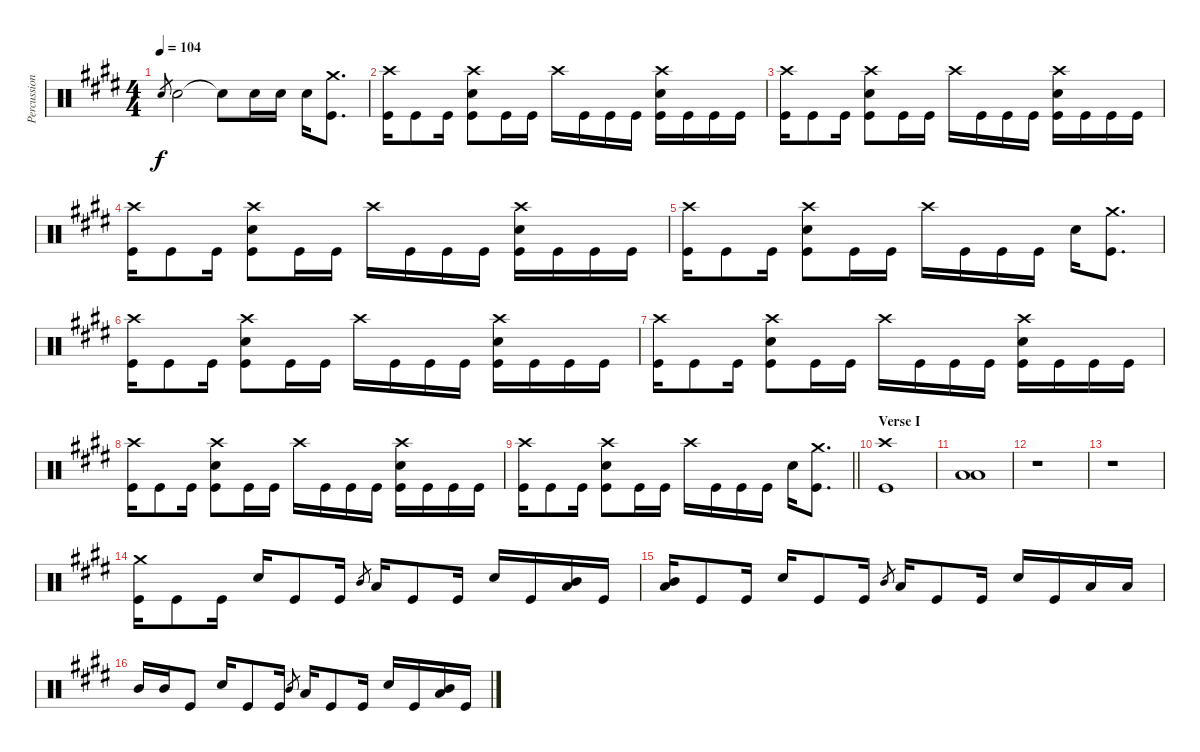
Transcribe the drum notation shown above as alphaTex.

\track ("Percussion" "Percussion") {instrument percussion}
\staff {score}
\articulation defaults
\ts (4 4)
\tempo 104
\clef neutral
\ks e "Electric Snare (hit)".8{gr dy f} "Electric Snare (hit)".2 "Snare (hit)"{t}.8 "Electric Snare (hit)".16 "Electric Snare (hit)".16 "Electric Snare (hit)".16
("Crash medium (hit)" "Kick (hit)").8{d} |
("Crash high (hit)" "Kick (hit)").16 "Kick (hit)".8 "Kick (hit)".16 ("Crash high (hit)" "Electric Snare (hit)" "Kick (hit)").8 "Kick (hit)".16 "Kick (hit)".16 "Crash high (hit)".16 "Kick (hit)".16 "Kick (hit)".16 "Kick (hit)".16 ("Crash high (hit)" "Electric Snare (hit)" "Kick (hit)").16 "Kick (hit)".16 "Kick (hit)".16 "Kick (hit)".16 |
("Crash high (hit)" "Kick (hit)").16 "Kick (hit)".8 "Kick (hit)".16 ("Crash high (hit)" "Electric Snare (hit)" "Kick (hit)").8 "Kick (hit)".16 "Kick (hit)".16 "Crash high (hit)".16 "Kick (hit)".16 "Kick (hit)".16 "Kick (hit)".16 ("Crash high (hit)" "Electric Snare (hit)" "Kick (hit)").16 "Kick (hit)".16 "Kick (hit)".16 "Kick (hit)".16 |
("Crash high (hit)" "Kick (hit)").16 "Kick (hit)".8 "Kick (hit)".16 ("Crash high (hit)" "Electric Snare (hit)" "Kick (hit)").8 "Kick (hit)".16 "Kick (hit)".16 "Crash high (hit)".16 "Kick (hit)".16 "Kick (hit)".16 "Kick (hit)".16 ("Crash high (hit)" "Electric Snare (hit)" "Kick (hit)").16 "Kick (hit)".16 "Kick (hit)".16 "Kick (hit)".16 |
("Crash high (hit)" "Kick (hit)").16 "Kick (hit)".8 "Kick (hit)".16 ("Crash high (hit)" "Electric Snare (hit)" "Kick (hit)").8 "Kick (hit)".16 "Kick (hit)".16 "Crash high (hit)".16 "Kick (hit)".16 "Kick (hit)".16 "Kick (hit)".16 "Electric Snare (hit)".16 ("Crash medium (hit)" "Kick (hit)").8{d} |
("Crash high (hit)" "Kick (hit)").16 "Kick (hit)".8 "Kick (hit)".16 ("Crash high (hit)" "Electric Snare (hit)" "Kick (hit)").8 "Kick (hit)".16 "Kick (hit)".16 "Crash high (hit)".16 "Kick (hit)".16 "Kick (hit)".16 "Kick (hit)".16 ("Crash high (hit)" "Electric Snare (hit)" "Kick (hit)").16 "Kick (hit)".16 "Kick (hit)".16 "Kick (hit)".16 |
("Crash high (hit)" "Kick (hit)").16 "Kick (hit)".8 "Kick (hit)".16 ("Crash high (hit)" "Electric Snare (hit)" "Kick (hit)").8 "Kick (hit)".16 "Kick (hit)".16 "Crash high (hit)".16 "Kick (hit)".16 "Kick (hit)".16 "Kick (hit)".16 ("Crash high (hit)" "Electric Snare (hit)" "Kick (hit)").16 "Kick (hit)".16 "Kick (hit)".16 "Kick (hit)".16 |
("Crash high (hit)" "Kick (hit)").16 "Kick (hit)".8 "Kick (hit)".16 ("Crash high (hit)" "Electric Snare (hit)" "Kick (hit)").8 "Kick (hit)".16 "Kick (hit)".16 "Crash high (hit)".16 "Kick (hit)".16 "Kick (hit)".16 "Kick (hit)".16 ("Crash high (hit)" "Electric Snare (hit)" "Kick (hit)").16 "Kick (hit)".16 "Kick (hit)".16 "Kick (hit)".16 |
\barLineRight lightlight
("Crash high (hit)" "Kick (hit)").16 "Kick (hit)".8 "Kick (hit)".16 ("Crash high (hit)" "Electric Snare (hit)" "Kick (hit)").8 "Kick (hit)".16 "Kick (hit)".16 "Crash high (hit)".16 "Kick (hit)".16 "Kick (hit)".16 "Kick (hit)".16 "Electric Snare (hit)".16 ("Crash medium (hit)" "Kick (hit)").8{d} |
\section ("" "Verse I")
("Crash high (hit)" "Kick (hit)").1 |
("Low Floor Tom (hit)" "Low Floor Tom (hit)").1 |
r.1 |
r.1 |
("Crash medium (hit)" "Kick (hit)").16 "Kick (hit)".8 "Kick (hit)".16 "Electric Snare (hit)".16 "Kick (hit)".8 "Kick (hit)".16 "Mid Tom (hit)".8{gr} "Low Tom (hit)".16 "Kick (hit)".8 "Kick (hit)".16 "Electric Snare (hit)".16 "Kick (hit)".16 ("Mid Tom (hit)" "Low Tom (hit)").16 "Kick (hit)".16 |
("Mid Tom (hit)" "Low Tom (hit)").16 "Kick (hit)".8 "Kick (hit)".16 "Electric Snare (hit)".16 "Kick (hit)".8 "Kick (hit)".16 "Mid Tom (hit)".8{gr} "Low Tom (hit)".16 "Kick (hit)".8 "Kick (hit)".16 "Electric Snare (hit)".16 "Kick (hit)".16 "Low Tom (hit)".16 "Low Tom (hit)".16 |
"Mid Tom (hit)".16 "Mid Tom (hit)".16 "Kick (hit)".8 "Electric Snare (hit)".16 "Kick (hit)".8 "Kick (hit)".16 "Mid Tom (hit)".8{gr} "Low Tom (hit)".16 "Kick (hit)".8 "Kick (hit)".16 "Electric Snare (hit)".16 "Kick (hit)".16 ("Mid Tom (hit)" "Low Tom (hit)").16 "Kick (hit)".16
